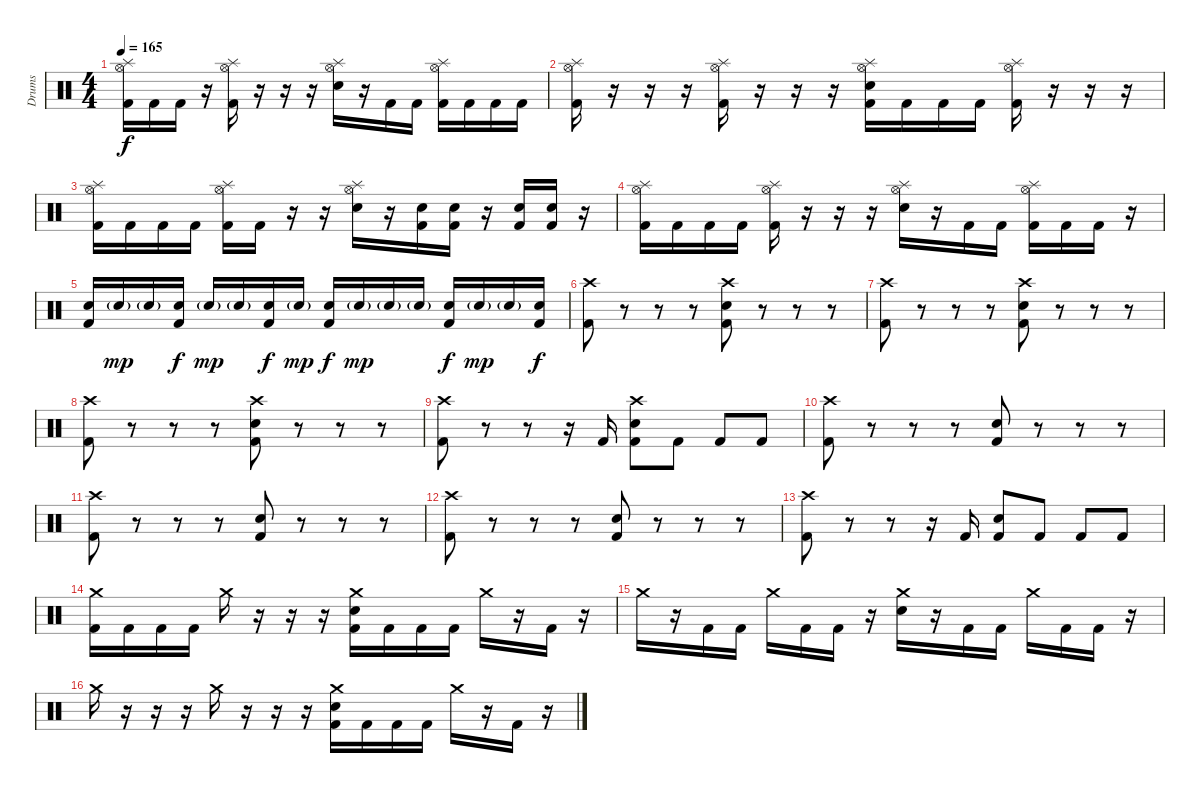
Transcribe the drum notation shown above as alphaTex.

\track ("Drums" "Drums") {instrument percussion}
\staff {score}
\articulation defaults
\ts (4 4)
\tempo 165
\clef neutral
\ks c
("Splash (hit)" "Hi-Hat (open)" "Kick (hit) 2").16{dy f} "Kick (hit) 2".16 "Kick (hit) 2".16 r.16 ("Splash (hit)" "Hi-Hat (open)" "Kick (hit) 2").16 r.16 r.16 r.16 ("Splash (hit)" "Hi-Hat (open)" "Electric Snare (hit)").16 r.16 "Kick (hit) 2".16 "Kick (hit) 2".16 ("Splash (hit)" "Hi-Hat (open)" "Kick (hit) 2").16 "Kick (hit) 2".16 "Kick (hit) 2".16 "Kick (hit) 2".16 |
("Splash (hit)" "Hi-Hat (open)" "Kick (hit) 2").16 r.16 r.16 r.16 ("Splash (hit)" "Hi-Hat (open)" "Kick (hit) 2").16 r.16 r.16 r.16 ("Splash (hit)" "Hi-Hat (open)" "Electric Snare (hit)" "Kick (hit) 2").16 "Kick (hit) 2".16 "Kick (hit) 2".16 "Kick (hit) 2".16 ("Splash (hit)" "Hi-Hat (open)" "Kick (hit) 2").16 r.16 r.16 r.16 |
("Splash (hit)" "Hi-Hat (open)" "Kick (hit) 2").16 "Kick (hit) 2".16 "Kick (hit) 2".16 "Kick (hit) 2".16 ("Splash (hit)" "Hi-Hat (open)" "Kick (hit) 2").16 "Kick (hit) 2".16 r.16 r.16 ("Splash (hit)" "Hi-Hat (open)" "Electric Snare (hit)").16 r.16 ("Electric Snare (hit)" "Kick (hit) 2").16 ("Electric Snare (hit)" "Kick (hit) 2").16 r.16 ("Electric Snare (hit)" "Kick (hit) 2").16 ("Electric Snare (hit)" "Kick (hit) 2").16 r.16 |
("Splash (hit)" "Hi-Hat (open)" "Kick (hit) 2").16 "Kick (hit) 2".16 "Kick (hit) 2".16 "Kick (hit) 2".16 ("Splash (hit)" "Hi-Hat (open)" "Kick (hit) 2").16 r.16 r.16 r.16 ("Splash (hit)" "Hi-Hat (open)" "Electric Snare (hit)").16 r.16 "Kick (hit) 2".16 "Kick (hit) 2".16 ("Splash (hit)" "Hi-Hat (open)" "Kick (hit) 2").16 "Kick (hit) 2".16 "Kick (hit) 2".16 r.16 |
("Electric Snare (hit)" "Kick (hit) 2").16 "Electric Snare (hit)"{g}.16{dy mp} "Electric Snare (hit)"{g}.16 ("Electric Snare (hit)" "Kick (hit) 2").16{dy f} "Electric Snare (hit)"{g}.16{dy mp} "Electric Snare (hit)"{g}.16 ("Electric Snare (hit)" "Kick (hit) 2").16{dy f} "Electric Snare (hit)"{g}.16{dy mp} ("Electric Snare (hit)" "Kick (hit) 2").16{dy f} "Electric Snare (hit)"{g}.16{dy mp} "Electric Snare (hit)"{g}.16 "Electric Snare (hit)"{g}.16 ("Electric Snare (hit)" "Kick (hit) 2").16{dy f} "Electric Snare (hit)"{g}.16{dy mp} "Electric Snare (hit)"{g}.16 ("Electric Snare (hit)" "Kick (hit) 2").16{dy f} |
("Crash high (hit)" "Kick (hit) 2").8 r.8 r.8 r.8 ("Crash high (hit)" "Electric Snare (hit)" "Kick (hit) 2").8 r.8 r.8 r.8 |
("Crash high (hit)" "Kick (hit) 2").8 r.8 r.8 r.8 ("Crash high (hit)" "Electric Snare (hit)" "Kick (hit) 2").8 r.8 r.8 r.8 |
("Crash high (hit)" "Kick (hit) 2").8 r.8 r.8 r.8 ("Crash high (hit)" "Electric Snare (hit)" "Kick (hit) 2").8 r.8 r.8 r.8 |
("Crash high (hit)" "Kick (hit) 2").8 r.8 r.8 r.16 "Kick (hit) 2".16 ("Crash high (hit)" "Electric Snare (hit)" "Kick (hit) 2").8 "Kick (hit) 2".8 "Kick (hit) 2".8 "Kick (hit) 2".8 |
("Crash high (hit)" "Kick (hit) 2").8 r.8 r.8 r.8 ("Electric Snare (hit)" "Kick (hit) 2").8 r.8 r.8 r.8 |
("Crash high (hit)" "Kick (hit) 2").8 r.8 r.8 r.8 ("Electric Snare (hit)" "Kick (hit) 2").8 r.8 r.8 r.8 |
("Crash high (hit)" "Kick (hit) 2").8 r.8 r.8 r.8 ("Electric Snare (hit)" "Kick (hit) 2").8 r.8 r.8 r.8 |
("Crash high (hit)" "Kick (hit) 2").8 r.8 r.8 r.16 "Kick (hit) 2".16 ("Electric Snare (hit)" "Kick (hit) 2").8 "Kick (hit) 2".8 "Kick (hit) 2".8 "Kick (hit) 2".8 |
("Crash medium (hit)" "Kick (hit) 2").16 "Kick (hit) 2".16 "Kick (hit) 2".16 "Kick (hit) 2".16 "Crash medium (hit)".16 r.16 r.16 r.16 ("Crash medium (hit)" "Electric Snare (hit)" "Kick (hit) 2").16 "Kick (hit) 2".16 "Kick (hit) 2".16 "Kick (hit) 2".16 "Crash medium (hit)".16 r.16 "Kick (hit) 2".16 r.16 |
"Crash medium (hit)".16 r.16 "Kick (hit) 2".16 "Kick (hit) 2".16 "Crash medium (hit)".16 "Kick (hit) 2".16 "Kick (hit) 2".16 r.16 ("Crash medium (hit)" "Electric Snare (hit)").16 r.16 "Kick (hit) 2".16 "Kick (hit) 2".16 "Crash medium (hit)".16 "Kick (hit) 2".16 "Kick (hit) 2".16 r.16 |
"Crash medium (hit)".16 r.16 r.16 r.16 "Crash medium (hit)".16 r.16 r.16 r.16 ("Crash medium (hit)" "Electric Snare (hit)" "Kick (hit) 2").16 "Kick (hit) 2".16 "Kick (hit) 2".16 "Kick (hit) 2".16 "Crash medium (hit)".16 r.16 "Kick (hit) 2".16 r.16
